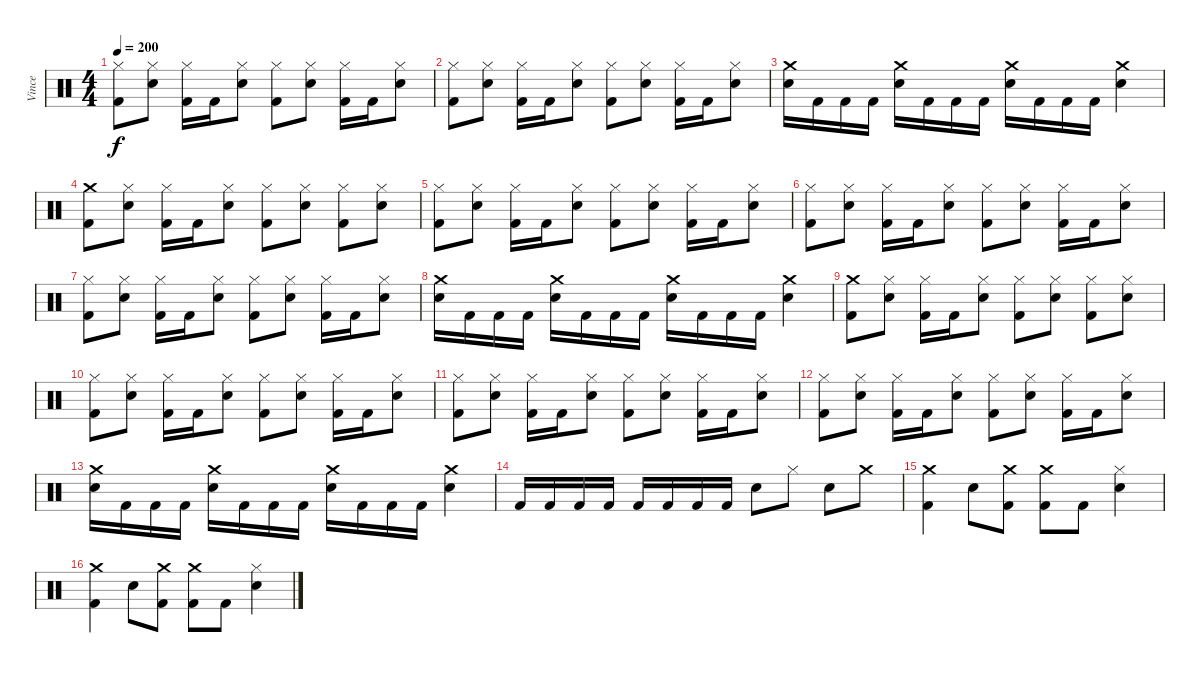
\track ("Vince" "Vince") {instrument percussion}
\staff {score}
\articulation defaults
\ts (4 4)
\tempo 200
\clef neutral
\ks c
("Hi-Hat (closed)" "Kick (hit) 2").8{dy f} ("Hi-Hat (closed)" "Snare (hit) 2").8 ("Hi-Hat (closed)" "Kick (hit) 2").16 "Kick (hit) 2".16 ("Hi-Hat (closed)" "Snare (hit) 2").8 ("Hi-Hat (closed)" "Kick (hit) 2").8 ("Hi-Hat (closed)" "Snare (hit) 2").8 ("Hi-Hat (closed)" "Kick (hit) 2").16 "Kick (hit) 2".16 ("Hi-Hat (closed)" "Snare (hit) 2").8 |
("Hi-Hat (closed)" "Kick (hit) 2").8 ("Hi-Hat (closed)" "Snare (hit) 2").8 ("Hi-Hat (closed)" "Kick (hit) 2").16 "Kick (hit) 2".16 ("Hi-Hat (closed)" "Snare (hit) 2").8 ("Hi-Hat (closed)" "Kick (hit) 2").8 ("Hi-Hat (closed)" "Snare (hit) 2").8 ("Hi-Hat (closed)" "Kick (hit) 2").16 "Kick (hit) 2".16 ("Hi-Hat (closed)" "Snare (hit) 2").8 |
("Crash medium (hit)" "Snare (hit) 2").16 "Kick (hit) 2".16 "Kick (hit) 2".16 "Kick (hit) 2".16 ("Crash medium (hit)" "Snare (hit) 2").16 "Kick (hit) 2".16 "Kick (hit) 2".16 "Kick (hit) 2".16 ("Crash medium (hit)" "Snare (hit) 2").16 "Kick (hit) 2".16 "Kick (hit) 2".16 "Kick (hit) 2".16 ("Crash medium (hit)" "Snare (hit) 2").4 |
("Crash medium (hit)" "Kick (hit) 2").8 ("Hi-Hat (closed)" "Snare (hit) 2").8 ("Hi-Hat (closed)" "Kick (hit) 2").16 "Kick (hit) 2".16 ("Hi-Hat (closed)" "Snare (hit) 2").8 ("Hi-Hat (closed)" "Kick (hit) 2").8 ("Hi-Hat (closed)" "Snare (hit) 2").8 ("Hi-Hat (closed)" "Kick (hit) 2").8 ("Hi-Hat (closed)" "Snare (hit) 2").8 |
("Hi-Hat (closed)" "Kick (hit) 2").8 ("Hi-Hat (closed)" "Snare (hit) 2").8 ("Hi-Hat (closed)" "Kick (hit) 2").16 "Kick (hit) 2".16 ("Hi-Hat (closed)" "Snare (hit) 2").8 ("Hi-Hat (closed)" "Kick (hit) 2").8 ("Hi-Hat (closed)" "Snare (hit) 2").8 ("Hi-Hat (closed)" "Kick (hit) 2").16 "Kick (hit) 2".16 ("Hi-Hat (closed)" "Snare (hit) 2").8 |
("Hi-Hat (closed)" "Kick (hit) 2").8 ("Hi-Hat (closed)" "Snare (hit) 2").8 ("Hi-Hat (closed)" "Kick (hit) 2").16 "Kick (hit) 2".16 ("Hi-Hat (closed)" "Snare (hit) 2").8 ("Hi-Hat (closed)" "Kick (hit) 2").8 ("Hi-Hat (closed)" "Snare (hit) 2").8 ("Hi-Hat (closed)" "Kick (hit) 2").16 "Kick (hit) 2".16 ("Hi-Hat (closed)" "Snare (hit) 2").8 |
("Hi-Hat (closed)" "Kick (hit) 2").8 ("Hi-Hat (closed)" "Snare (hit) 2").8 ("Hi-Hat (closed)" "Kick (hit) 2").16 "Kick (hit) 2".16 ("Hi-Hat (closed)" "Snare (hit) 2").8 ("Hi-Hat (closed)" "Kick (hit) 2").8 ("Hi-Hat (closed)" "Snare (hit) 2").8 ("Hi-Hat (closed)" "Kick (hit) 2").16 "Kick (hit) 2".16 ("Hi-Hat (closed)" "Snare (hit) 2").8 |
("Crash medium (hit)" "Snare (hit) 2").16 "Kick (hit) 2".16 "Kick (hit) 2".16 "Kick (hit) 2".16 ("Crash medium (hit)" "Snare (hit) 2").16 "Kick (hit) 2".16 "Kick (hit) 2".16 "Kick (hit) 2".16 ("Crash medium (hit)" "Snare (hit) 2").16 "Kick (hit) 2".16 "Kick (hit) 2".16 "Kick (hit) 2".16 ("Crash medium (hit)" "Snare (hit) 2").4 |
("Crash medium (hit)" "Kick (hit) 2").8 ("Hi-Hat (closed)" "Snare (hit) 2").8 ("Hi-Hat (closed)" "Kick (hit) 2").16 "Kick (hit) 2".16 ("Hi-Hat (closed)" "Snare (hit) 2").8 ("Hi-Hat (closed)" "Kick (hit) 2").8 ("Hi-Hat (closed)" "Snare (hit) 2").8 ("Hi-Hat (closed)" "Kick (hit) 2").8 ("Hi-Hat (closed)" "Snare (hit) 2").8 |
("Hi-Hat (closed)" "Kick (hit) 2").8 ("Hi-Hat (closed)" "Snare (hit) 2").8 ("Hi-Hat (closed)" "Kick (hit) 2").16 "Kick (hit) 2".16 ("Hi-Hat (closed)" "Snare (hit) 2").8 ("Hi-Hat (closed)" "Kick (hit) 2").8 ("Hi-Hat (closed)" "Snare (hit) 2").8 ("Hi-Hat (closed)" "Kick (hit) 2").16 "Kick (hit) 2".16 ("Hi-Hat (closed)" "Snare (hit) 2").8 |
("Hi-Hat (closed)" "Kick (hit) 2").8 ("Hi-Hat (closed)" "Snare (hit) 2").8 ("Hi-Hat (closed)" "Kick (hit) 2").16 "Kick (hit) 2".16 ("Hi-Hat (closed)" "Snare (hit) 2").8 ("Hi-Hat (closed)" "Kick (hit) 2").8 ("Hi-Hat (closed)" "Snare (hit) 2").8 ("Hi-Hat (closed)" "Kick (hit) 2").16 "Kick (hit) 2".16 ("Hi-Hat (closed)" "Snare (hit) 2").8 |
("Hi-Hat (closed)" "Kick (hit) 2").8 ("Hi-Hat (closed)" "Snare (hit) 2").8 ("Hi-Hat (closed)" "Kick (hit) 2").16 "Kick (hit) 2".16 ("Hi-Hat (closed)" "Snare (hit) 2").8 ("Hi-Hat (closed)" "Kick (hit) 2").8 ("Hi-Hat (closed)" "Snare (hit) 2").8 ("Hi-Hat (closed)" "Kick (hit) 2").16 "Kick (hit) 2".16 ("Hi-Hat (closed)" "Snare (hit) 2").8 |
("Crash medium (hit)" "Snare (hit) 2").16 "Kick (hit) 2".16 "Kick (hit) 2".16 "Kick (hit) 2".16 ("Crash medium (hit)" "Snare (hit) 2").16 "Kick (hit) 2".16 "Kick (hit) 2".16 "Kick (hit) 2".16 ("Crash medium (hit)" "Snare (hit) 2").16 "Kick (hit) 2".16 "Kick (hit) 2".16 "Kick (hit) 2".16 ("Crash medium (hit)" "Snare (hit) 2").4 |
"Kick (hit) 2".16 "Kick (hit) 2".16 "Kick (hit) 2".16 "Kick (hit) 2".16 "Kick (hit) 2".16 "Kick (hit) 2".16 "Kick (hit) 2".16 "Kick (hit) 2".16 "Snare (hit) 2".8 "Hi-Hat (closed)".8 "Snare (hit) 2".8 "Crash medium (hit)".8 |
("Crash medium (hit)" "Kick (hit) 2").4 "Snare (hit) 2".8 ("Crash medium (hit)" "Kick (hit) 2").8 ("Crash medium (hit)" "Kick (hit) 2").8 "Kick (hit) 2".8 ("Hi-Hat (closed)" "Snare (hit) 2").4 |
("Crash medium (hit)" "Kick (hit) 2").4 "Snare (hit) 2".8 ("Crash medium (hit)" "Kick (hit) 2").8 ("Crash medium (hit)" "Kick (hit) 2").8 "Kick (hit) 2".8 ("Hi-Hat (closed)" "Snare (hit) 2").4
